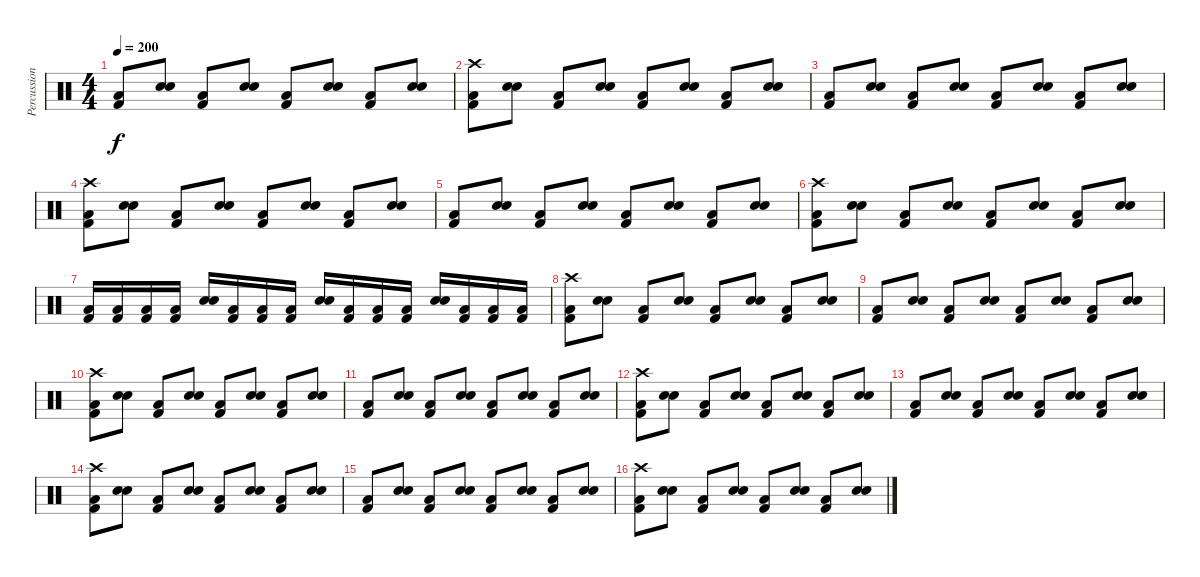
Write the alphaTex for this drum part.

\track ("Percussion, dave" "Percussion") {instrument percussion}
\staff {score}
\articulation defaults
\ts (4 4)
\tempo 200
\clef neutral
\ks c
("Low Tom (hit)" "Kick (hit) 2").8{dy f} ("Snare (hit) 2" "Electric Snare (hit)").8 ("Low Tom (hit)" "Kick (hit) 2").8 ("Snare (hit) 2" "Electric Snare (hit)").8 ("Low Tom (hit)" "Kick (hit) 2").8 ("Snare (hit) 2" "Electric Snare (hit)").8 ("Low Tom (hit)" "Kick (hit) 2").8 ("Snare (hit) 2" "Electric Snare (hit)").8 |
("Crash high (hit)" "Low Tom (hit)" "Kick (hit) 2").8 ("Snare (hit) 2" "Electric Snare (hit)").8 ("Low Tom (hit)" "Kick (hit) 2").8 ("Snare (hit) 2" "Electric Snare (hit)").8 ("Low Tom (hit)" "Kick (hit) 2").8 ("Snare (hit) 2" "Electric Snare (hit)").8 ("Low Tom (hit)" "Kick (hit) 2").8 ("Snare (hit) 2" "Electric Snare (hit)").8 |
("Low Tom (hit)" "Kick (hit) 2").8 ("Snare (hit) 2" "Electric Snare (hit)").8 ("Low Tom (hit)" "Kick (hit) 2").8 ("Snare (hit) 2" "Electric Snare (hit)").8 ("Low Tom (hit)" "Kick (hit) 2").8 ("Snare (hit) 2" "Electric Snare (hit)").8 ("Low Tom (hit)" "Kick (hit) 2").8 ("Snare (hit) 2" "Electric Snare (hit)").8 |
("Crash high (hit)" "Low Tom (hit)" "Kick (hit) 2").8 ("Snare (hit) 2" "Electric Snare (hit)").8 ("Low Tom (hit)" "Kick (hit) 2").8 ("Snare (hit) 2" "Electric Snare (hit)").8 ("Low Tom (hit)" "Kick (hit) 2").8 ("Snare (hit) 2" "Electric Snare (hit)").8 ("Low Tom (hit)" "Kick (hit) 2").8 ("Snare (hit) 2" "Electric Snare (hit)").8 |
("Low Tom (hit)" "Kick (hit) 2").8 ("Snare (hit) 2" "Electric Snare (hit)").8 ("Low Tom (hit)" "Kick (hit) 2").8 ("Snare (hit) 2" "Electric Snare (hit)").8 ("Low Tom (hit)" "Kick (hit) 2").8 ("Snare (hit) 2" "Electric Snare (hit)").8 ("Low Tom (hit)" "Kick (hit) 2").8 ("Snare (hit) 2" "Electric Snare (hit)").8 |
("Crash high (hit)" "Low Tom (hit)" "Kick (hit) 2").8 ("Snare (hit) 2" "Electric Snare (hit)").8 ("Low Tom (hit)" "Kick (hit) 2").8 ("Snare (hit) 2" "Electric Snare (hit)").8 ("Low Tom (hit)" "Kick (hit) 2").8 ("Snare (hit) 2" "Electric Snare (hit)").8 ("Low Tom (hit)" "Kick (hit) 2").8 ("Snare (hit) 2" "Electric Snare (hit)").8 |
("Low Tom (hit)" "Kick (hit) 2").16 ("Low Tom (hit)" "Kick (hit) 2").16 ("Low Tom (hit)" "Kick (hit) 2").16 ("Low Tom (hit)" "Kick (hit) 2").16 ("Electric Snare (hit)" "Snare (hit) 2").16 ("Low Tom (hit)" "Kick (hit) 2").16 ("Low Tom (hit)" "Kick (hit) 2").16 ("Low Tom (hit)" "Kick (hit) 2").16 ("Electric Snare (hit)" "Snare (hit) 2").16 ("Low Tom (hit)" "Kick (hit) 2").16 ("Low Tom (hit)" "Kick (hit) 2").16 ("Low Tom (hit)" "Kick (hit) 2").16 ("Electric Snare (hit)" "Snare (hit) 2").16 ("Low Tom (hit)" "Kick (hit) 2").16 ("Low Tom (hit)" "Kick (hit) 2").16 ("Low Tom (hit)" "Kick (hit) 2").16 |
("Crash high (hit)" "Low Tom (hit)" "Kick (hit) 2").8 ("Snare (hit) 2" "Electric Snare (hit)").8 ("Low Tom (hit)" "Kick (hit) 2").8 ("Snare (hit) 2" "Electric Snare (hit)").8 ("Low Tom (hit)" "Kick (hit) 2").8 ("Snare (hit) 2" "Electric Snare (hit)").8 ("Low Tom (hit)" "Kick (hit) 2").8 ("Snare (hit) 2" "Electric Snare (hit)").8 |
("Low Tom (hit)" "Kick (hit) 2").8 ("Snare (hit) 2" "Electric Snare (hit)").8 ("Low Tom (hit)" "Kick (hit) 2").8 ("Snare (hit) 2" "Electric Snare (hit)").8 ("Low Tom (hit)" "Kick (hit) 2").8 ("Snare (hit) 2" "Electric Snare (hit)").8 ("Low Tom (hit)" "Kick (hit) 2").8 ("Snare (hit) 2" "Electric Snare (hit)").8 |
("Crash high (hit)" "Low Tom (hit)" "Kick (hit) 2").8 ("Snare (hit) 2" "Electric Snare (hit)").8 ("Low Tom (hit)" "Kick (hit) 2").8 ("Snare (hit) 2" "Electric Snare (hit)").8 ("Low Tom (hit)" "Kick (hit) 2").8 ("Snare (hit) 2" "Electric Snare (hit)").8 ("Low Tom (hit)" "Kick (hit) 2").8 ("Snare (hit) 2" "Electric Snare (hit)").8 |
("Low Tom (hit)" "Kick (hit) 2").8 ("Snare (hit) 2" "Electric Snare (hit)").8 ("Low Tom (hit)" "Kick (hit) 2").8 ("Snare (hit) 2" "Electric Snare (hit)").8 ("Low Tom (hit)" "Kick (hit) 2").8 ("Snare (hit) 2" "Electric Snare (hit)").8 ("Low Tom (hit)" "Kick (hit) 2").8 ("Snare (hit) 2" "Electric Snare (hit)").8 |
("Crash high (hit)" "Low Tom (hit)" "Kick (hit) 2").8 ("Snare (hit) 2" "Electric Snare (hit)").8 ("Low Tom (hit)" "Kick (hit) 2").8 ("Snare (hit) 2" "Electric Snare (hit)").8 ("Low Tom (hit)" "Kick (hit) 2").8 ("Snare (hit) 2" "Electric Snare (hit)").8 ("Low Tom (hit)" "Kick (hit) 2").8 ("Snare (hit) 2" "Electric Snare (hit)").8 |
("Low Tom (hit)" "Kick (hit) 2").8 ("Snare (hit) 2" "Electric Snare (hit)").8 ("Low Tom (hit)" "Kick (hit) 2").8 ("Snare (hit) 2" "Electric Snare (hit)").8 ("Low Tom (hit)" "Kick (hit) 2").8 ("Snare (hit) 2" "Electric Snare (hit)").8 ("Low Tom (hit)" "Kick (hit) 2").8 ("Snare (hit) 2" "Electric Snare (hit)").8 |
("Crash high (hit)" "Low Tom (hit)" "Kick (hit) 2").8 ("Snare (hit) 2" "Electric Snare (hit)").8 ("Low Tom (hit)" "Kick (hit) 2").8 ("Snare (hit) 2" "Electric Snare (hit)").8 ("Low Tom (hit)" "Kick (hit) 2").8 ("Snare (hit) 2" "Electric Snare (hit)").8 ("Low Tom (hit)" "Kick (hit) 2").8 ("Snare (hit) 2" "Electric Snare (hit)").8 |
("Low Tom (hit)" "Kick (hit) 2").8 ("Snare (hit) 2" "Electric Snare (hit)").8 ("Low Tom (hit)" "Kick (hit) 2").8 ("Snare (hit) 2" "Electric Snare (hit)").8 ("Low Tom (hit)" "Kick (hit) 2").8 ("Snare (hit) 2" "Electric Snare (hit)").8 ("Low Tom (hit)" "Kick (hit) 2").8 ("Snare (hit) 2" "Electric Snare (hit)").8 |
("Crash high (hit)" "Low Tom (hit)" "Kick (hit) 2").8 ("Snare (hit) 2" "Electric Snare (hit)").8 ("Low Tom (hit)" "Kick (hit) 2").8 ("Snare (hit) 2" "Electric Snare (hit)").8 ("Low Tom (hit)" "Kick (hit) 2").8 ("Snare (hit) 2" "Electric Snare (hit)").8 ("Low Tom (hit)" "Kick (hit) 2").8 ("Snare (hit) 2" "Electric Snare (hit)").8
